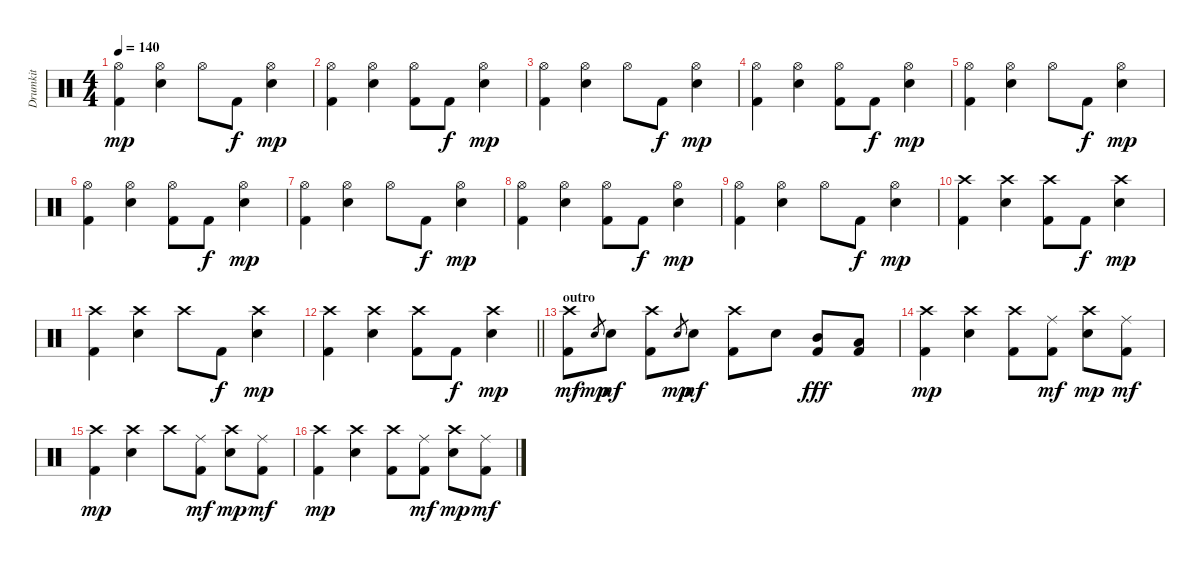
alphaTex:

\track ("Drumkit" "Drumkit") {instrument percussion}
\staff {score}
\articulation defaults
\ts (4 4)
\tempo 140
\clef neutral
\ks c
("Hi-Hat (open)" "Kick (hit) 2").4{dy mp} ("Hi-Hat (open)" "Snare (hit) 2").4 "Hi-Hat (open)".8 "Kick (hit) 2".8{dy f} ("Hi-Hat (open)" "Snare (hit) 2").4{dy mp} |
("Hi-Hat (open)" "Kick (hit) 2").4 ("Hi-Hat (open)" "Snare (hit) 2").4 ("Hi-Hat (open)" "Kick (hit) 2").8 "Kick (hit) 2".8{dy f} ("Hi-Hat (open)" "Snare (hit) 2").4{dy mp} |
("Hi-Hat (open)" "Kick (hit) 2").4 ("Hi-Hat (open)" "Snare (hit) 2").4 "Hi-Hat (open)".8 "Kick (hit) 2".8{dy f} ("Hi-Hat (open)" "Snare (hit) 2").4{dy mp} |
("Hi-Hat (open)" "Kick (hit) 2").4 ("Hi-Hat (open)" "Snare (hit) 2").4 ("Hi-Hat (open)" "Kick (hit) 2").8 "Kick (hit) 2".8{dy f} ("Hi-Hat (open)" "Snare (hit) 2").4{dy mp} |
("Hi-Hat (open)" "Kick (hit) 2").4 ("Hi-Hat (open)" "Snare (hit) 2").4 "Hi-Hat (open)".8 "Kick (hit) 2".8{dy f} ("Hi-Hat (open)" "Snare (hit) 2").4{dy mp} |
("Hi-Hat (open)" "Kick (hit) 2").4 ("Hi-Hat (open)" "Snare (hit) 2").4 ("Hi-Hat (open)" "Kick (hit) 2").8 "Kick (hit) 2".8{dy f} ("Hi-Hat (open)" "Snare (hit) 2").4{dy mp} |
("Hi-Hat (open)" "Kick (hit) 2").4 ("Hi-Hat (open)" "Snare (hit) 2").4 "Hi-Hat (open)".8 "Kick (hit) 2".8{dy f} ("Hi-Hat (open)" "Snare (hit) 2").4{dy mp} |
("Hi-Hat (open)" "Kick (hit) 2").4 ("Hi-Hat (open)" "Snare (hit) 2").4 ("Hi-Hat (open)" "Kick (hit) 2").8 "Kick (hit) 2".8{dy f} ("Hi-Hat (open)" "Snare (hit) 2").4{dy mp} |
("Hi-Hat (open)" "Kick (hit) 2").4 ("Hi-Hat (open)" "Snare (hit) 2").4 "Hi-Hat (open)".8 "Kick (hit) 2".8{dy f} ("Hi-Hat (open)" "Snare (hit) 2").4{dy mp} |
("Crash high (hit)" "Kick (hit) 2").4 ("Crash high (hit)" "Snare (hit) 2").4 ("Crash high (hit)" "Kick (hit) 2").8 "Kick (hit) 2".8{dy f} ("Crash high (hit)" "Snare (hit) 2").4{dy mp} |
("Crash high (hit)" "Kick (hit) 2").4 ("Crash high (hit)" "Snare (hit) 2").4 "Crash high (hit)".8 "Kick (hit) 2".8{dy f} ("Crash high (hit)" "Snare (hit) 2").4{dy mp} |
\barLineRight lightlight
("Crash high (hit)" "Kick (hit) 2").4 ("Crash high (hit)" "Snare (hit) 2").4 ("Crash high (hit)" "Kick (hit) 2").8 "Kick (hit) 2".8{dy f} ("Crash high (hit)" "Snare (hit) 2").4{dy mp} |
\section ("" "outro")
("Crash high (hit)" "Kick (hit) 2").8{dy mf} "Snare (hit)".8{gr dy mp} "Snare (hit) 2".8{dy mf} ("Crash high (hit)" "Kick (hit) 2").8 "Snare (hit)".8{gr dy mp} "Snare (hit) 2".8{dy mf} ("Crash high (hit)" "Kick (hit) 2").8 "Snare (hit) 2".8 ("Mid Tom (hit)" "Kick (hit) 2").8{dy fff} ("Low Tom (hit)" "Kick (hit) 2").8 |
("Crash high (hit)" "Kick (hit) 2").4{dy mp} ("Crash high (hit)" "Snare (hit) 2").4 ("Crash high (hit)" "Kick (hit) 2").8 ("Ride (middle)" "Kick (hit) 2").8{dy mf} ("Crash high (hit)" "Snare (hit) 2").8{dy mp} ("Ride (middle)" "Kick (hit) 2").8{dy mf} |
("Crash high (hit)" "Kick (hit) 2").4{dy mp} ("Crash high (hit)" "Snare (hit) 2").4 "Crash high (hit)".8 ("Ride (middle)" "Kick (hit) 2").8{dy mf} ("Crash high (hit)" "Snare (hit) 2").8{dy mp} ("Ride (middle)" "Kick (hit) 2").8{dy mf} |
("Crash high (hit)" "Kick (hit) 2").4{dy mp} ("Crash high (hit)" "Snare (hit) 2").4 ("Crash high (hit)" "Kick (hit) 2").8 ("Ride (middle)" "Kick (hit) 2").8{dy mf} ("Crash high (hit)" "Snare (hit) 2").8{dy mp} ("Ride (middle)" "Kick (hit) 2").8{dy mf}
